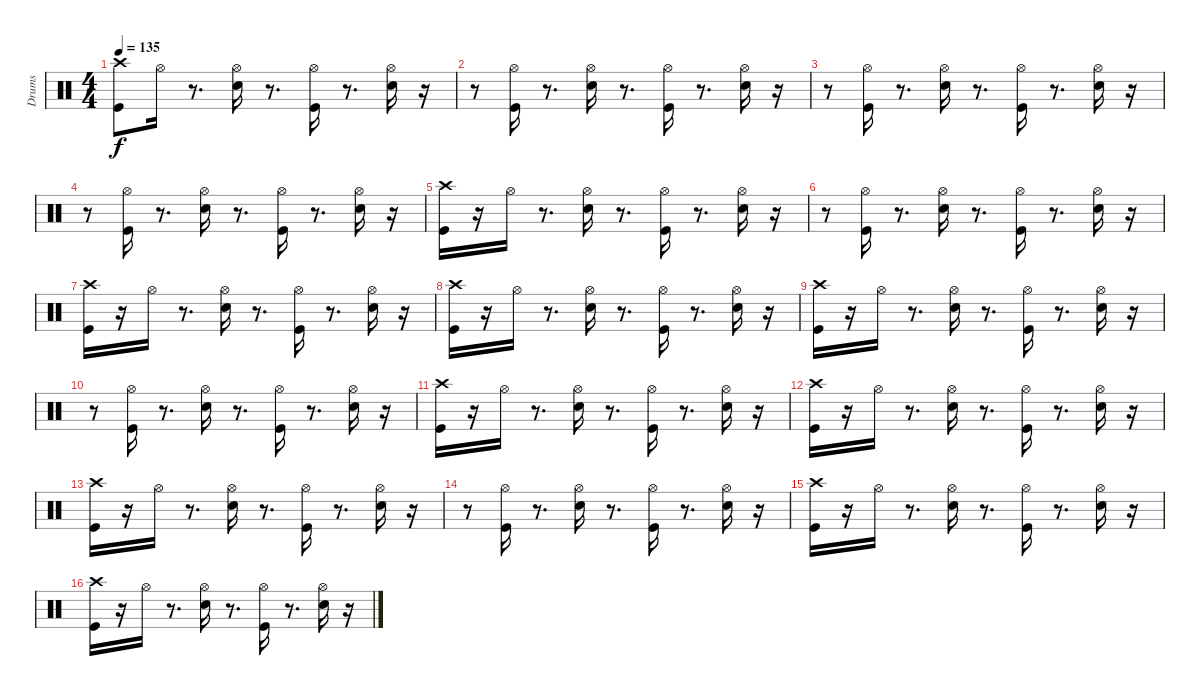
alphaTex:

\track ("Drums" "Drums") {instrument percussion}
\staff {score}
\articulation defaults
\ts (4 4)
\tempo 135
\clef neutral
\ks c
("Kick (hit)" "Crash high (hit)").8{dy f} "Hi-Hat (open)".16 r.8{d} ("Snare (hit) 2" "Hi-Hat (open)").16 r.8{d} ("Hi-Hat (open)" "Kick (hit)").16 r.8{d} ("Hi-Hat (open)" "Snare (hit) 2").16 r.16 |
r.8 ("Hi-Hat (open)" "Kick (hit)").16 r.8{d} ("Hi-Hat (open)" "Snare (hit) 2").16 r.8{d} ("Hi-Hat (open)" "Kick (hit)").16 r.8{d} ("Hi-Hat (open)" "Snare (hit) 2").16 r.16 |
r.8 ("Hi-Hat (open)" "Kick (hit)").16 r.8{d} ("Hi-Hat (open)" "Snare (hit) 2").16 r.8{d} ("Hi-Hat (open)" "Kick (hit)").16 r.8{d} ("Hi-Hat (open)" "Snare (hit) 2").16 r.16 |
r.8 ("Hi-Hat (open)" "Kick (hit)").16 r.8{d} ("Hi-Hat (open)" "Snare (hit) 2").16 r.8{d} ("Hi-Hat (open)" "Kick (hit)").16 r.8{d} ("Hi-Hat (open)" "Snare (hit) 2").16 r.16 |
("Kick (hit)" "Crash high (hit)").16 r.16 "Hi-Hat (open)".16 r.8{d} ("Hi-Hat (open)" "Snare (hit) 2").16 r.8{d} ("Hi-Hat (open)" "Kick (hit)").16 r.8{d} ("Hi-Hat (open)" "Snare (hit) 2").16 r.16 |
r.8 ("Hi-Hat (open)" "Kick (hit)").16 r.8{d} ("Hi-Hat (open)" "Snare (hit) 2").16 r.8{d} ("Hi-Hat (open)" "Kick (hit)").16 r.8{d} ("Hi-Hat (open)" "Snare (hit) 2").16 r.16 |
("Crash high (hit)" "Kick (hit)").16 r.16 "Hi-Hat (open)".16 r.8{d} ("Hi-Hat (open)" "Snare (hit) 2").16 r.8{d} ("Hi-Hat (open)" "Kick (hit)").16 r.8{d} ("Hi-Hat (open)" "Snare (hit) 2").16 r.16 |
("Kick (hit)" "Crash high (hit)").16 r.16 "Hi-Hat (open)".16 r.8{d} ("Hi-Hat (open)" "Snare (hit) 2").16 r.8{d} ("Hi-Hat (open)" "Kick (hit)").16 r.8{d} ("Hi-Hat (open)" "Snare (hit) 2").16 r.16 |
("Kick (hit)" "Crash high (hit)").16 r.16 "Hi-Hat (open)".16 r.8{d} ("Hi-Hat (open)" "Snare (hit) 2").16 r.8{d} ("Hi-Hat (open)" "Kick (hit)").16 r.8{d} ("Hi-Hat (open)" "Snare (hit) 2").16 r.16 |
r.8 ("Hi-Hat (open)" "Kick (hit)").16 r.8{d} ("Hi-Hat (open)" "Snare (hit) 2").16 r.8{d} ("Hi-Hat (open)" "Kick (hit)").16 r.8{d} ("Hi-Hat (open)" "Snare (hit) 2").16 r.16 |
("Crash high (hit)" "Kick (hit)").16 r.16 "Hi-Hat (open)".16 r.8{d} ("Hi-Hat (open)" "Snare (hit) 2").16 r.8{d} ("Hi-Hat (open)" "Kick (hit)").16 r.8{d} ("Hi-Hat (open)" "Snare (hit) 2").16 r.16 |
("Kick (hit)" "Crash high (hit)").16 r.16 "Hi-Hat (open)".16 r.8{d} ("Hi-Hat (open)" "Snare (hit) 2").16 r.8{d} ("Hi-Hat (open)" "Kick (hit)").16 r.8{d} ("Hi-Hat (open)" "Snare (hit) 2").16 r.16 |
("Kick (hit)" "Crash high (hit)").16 r.16 "Hi-Hat (open)".16 r.8{d} ("Hi-Hat (open)" "Snare (hit) 2").16 r.8{d} ("Hi-Hat (open)" "Kick (hit)").16 r.8{d} ("Hi-Hat (open)" "Snare (hit) 2").16 r.16 |
r.8 ("Hi-Hat (open)" "Kick (hit)").16 r.8{d} ("Hi-Hat (open)" "Snare (hit) 2").16 r.8{d} ("Hi-Hat (open)" "Kick (hit)").16 r.8{d} ("Hi-Hat (open)" "Snare (hit) 2").16 r.16 |
("Kick (hit)" "Crash high (hit)").16 r.16 "Hi-Hat (open)".16 r.8{d} ("Hi-Hat (open)" "Snare (hit) 2").16 r.8{d} ("Hi-Hat (open)" "Kick (hit)").16 r.8{d} ("Hi-Hat (open)" "Snare (hit) 2").16 r.16 |
("Kick (hit)" "Crash high (hit)").16 r.16 "Hi-Hat (open)".16 r.8{d} ("Hi-Hat (open)" "Snare (hit) 2").16 r.8{d} ("Hi-Hat (open)" "Kick (hit)").16 r.8{d} ("Hi-Hat (open)" "Snare (hit) 2").16 r.16
